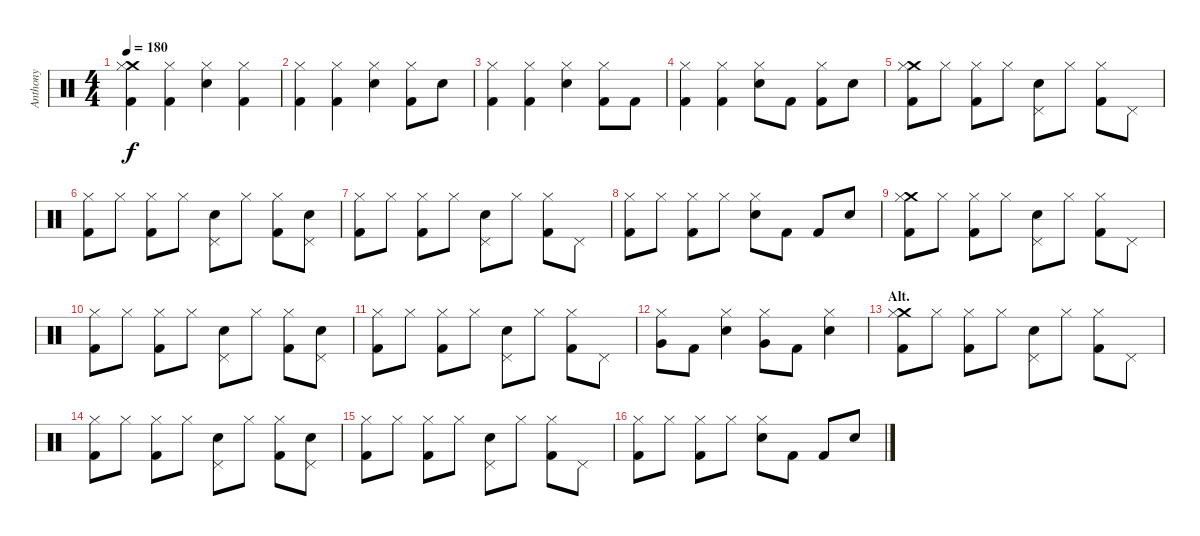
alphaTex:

\track ("Anthony" "Anthony") {instrument percussion}
\staff {score}
\articulation defaults
\ts (4 4)
\tempo 180
\clef neutral
\ks c
("Crash medium (hit)" "Hi-Hat (closed)" "Kick (hit) 2").4{dy f} ("Hi-Hat (closed)" "Kick (hit) 2").4 ("Hi-Hat (closed)" "Electric Snare (hit)").4 ("Hi-Hat (closed)" "Kick (hit) 2").4 |
("Hi-Hat (closed)" "Kick (hit) 2").4 ("Hi-Hat (closed)" "Kick (hit) 2").4 ("Hi-Hat (closed)" "Electric Snare (hit)").4 ("Hi-Hat (closed)" "Kick (hit) 2").8 "Electric Snare (hit)".8 |
("Hi-Hat (closed)" "Kick (hit) 2").4 ("Hi-Hat (closed)" "Kick (hit) 2").4 ("Hi-Hat (closed)" "Electric Snare (hit)").4 ("Hi-Hat (closed)" "Kick (hit) 2").8 "Kick (hit) 2".8 |
("Hi-Hat (closed)" "Kick (hit) 2").4 ("Hi-Hat (closed)" "Kick (hit) 2").4 ("Hi-Hat (closed)" "Electric Snare (hit)").8 "Kick (hit) 2".8 ("Hi-Hat (closed)" "Kick (hit) 2").8 "Electric Snare (hit)".8 |
("Crash medium (hit)" "Hi-Hat (closed)" "Kick (hit) 2").8 "Hi-Hat (closed)".8 ("Hi-Hat (closed)" "Kick (hit) 2").8 "Hi-Hat (closed)".8 ("Pedal Hi-Hat (hit)" "Electric Snare (hit)").8 "Hi-Hat (closed)".8 ("Hi-Hat (closed)" "Kick (hit) 2").8 "Pedal Hi-Hat (hit)".8 |
("Hi-Hat (closed)" "Kick (hit) 2").8 "Hi-Hat (closed)".8 ("Hi-Hat (closed)" "Kick (hit) 2").8 "Hi-Hat (closed)".8 ("Pedal Hi-Hat (hit)" "Electric Snare (hit)").8 "Hi-Hat (closed)".8 ("Hi-Hat (closed)" "Kick (hit) 2").8 ("Pedal Hi-Hat (hit)" "Electric Snare (hit)").8 |
("Hi-Hat (closed)" "Kick (hit) 2").8 "Hi-Hat (closed)".8 ("Hi-Hat (closed)" "Kick (hit) 2").8 "Hi-Hat (closed)".8 ("Pedal Hi-Hat (hit)" "Electric Snare (hit)").8 "Hi-Hat (closed)".8 ("Hi-Hat (closed)" "Kick (hit) 2").8 "Pedal Hi-Hat (hit)".8 |
("Hi-Hat (closed)" "Kick (hit) 2").8 "Hi-Hat (closed)".8 ("Hi-Hat (closed)" "Kick (hit) 2").8 "Hi-Hat (closed)".8 ("Hi-Hat (closed)" "Electric Snare (hit)").8 "Kick (hit) 2".8 "Kick (hit) 2".8 "Electric Snare (hit)".8 |
("Crash medium (hit)" "Hi-Hat (closed)" "Kick (hit) 2").8 "Hi-Hat (closed)".8 ("Hi-Hat (closed)" "Kick (hit) 2").8 "Hi-Hat (closed)".8 ("Pedal Hi-Hat (hit)" "Electric Snare (hit)").8 "Hi-Hat (closed)".8 ("Hi-Hat (closed)" "Kick (hit) 2").8 "Pedal Hi-Hat (hit)".8 |
("Hi-Hat (closed)" "Kick (hit) 2").8 "Hi-Hat (closed)".8 ("Hi-Hat (closed)" "Kick (hit) 2").8 "Hi-Hat (closed)".8 ("Pedal Hi-Hat (hit)" "Electric Snare (hit)").8 "Hi-Hat (closed)".8 ("Hi-Hat (closed)" "Kick (hit) 2").8 ("Pedal Hi-Hat (hit)" "Electric Snare (hit)").8 |
("Hi-Hat (closed)" "Kick (hit) 2").8 "Hi-Hat (closed)".8 ("Hi-Hat (closed)" "Kick (hit) 2").8 "Hi-Hat (closed)".8 ("Pedal Hi-Hat (hit)" "Electric Snare (hit)").8 "Hi-Hat (closed)".8 ("Hi-Hat (closed)" "Kick (hit) 2").8 "Pedal Hi-Hat (hit)".8 |
("Hi-Hat (closed)" "Very Low Tom (hit)").8 "Kick (hit) 2".8 ("Hi-Hat (closed)" "Electric Snare (hit)").4 ("Hi-Hat (closed)" "Very Low Tom (hit)").8 "Kick (hit) 2".8 ("Hi-Hat (closed)" "Electric Snare (hit)").4 |
\section ("" "Alt.")
("Crash medium (hit)" "Hi-Hat (closed)" "Kick (hit) 2").8 "Hi-Hat (closed)".8 ("Hi-Hat (closed)" "Kick (hit) 2").8 "Hi-Hat (closed)".8 ("Pedal Hi-Hat (hit)" "Electric Snare (hit)").8 "Hi-Hat (closed)".8 ("Hi-Hat (closed)" "Kick (hit) 2").8 "Pedal Hi-Hat (hit)".8 |
("Hi-Hat (closed)" "Kick (hit) 2").8 "Hi-Hat (closed)".8 ("Hi-Hat (closed)" "Kick (hit) 2").8 "Hi-Hat (closed)".8 ("Pedal Hi-Hat (hit)" "Electric Snare (hit)").8 "Hi-Hat (closed)".8 ("Hi-Hat (closed)" "Kick (hit) 2").8 ("Pedal Hi-Hat (hit)" "Electric Snare (hit)").8 |
("Hi-Hat (closed)" "Kick (hit) 2").8 "Hi-Hat (closed)".8 ("Hi-Hat (closed)" "Kick (hit) 2").8 "Hi-Hat (closed)".8 ("Pedal Hi-Hat (hit)" "Electric Snare (hit)").8 "Hi-Hat (closed)".8 ("Hi-Hat (closed)" "Kick (hit) 2").8 "Pedal Hi-Hat (hit)".8 |
("Hi-Hat (closed)" "Kick (hit) 2").8 "Hi-Hat (closed)".8 ("Hi-Hat (closed)" "Kick (hit) 2").8 "Hi-Hat (closed)".8 ("Hi-Hat (closed)" "Electric Snare (hit)").8 "Kick (hit) 2".8 "Kick (hit) 2".8 "Electric Snare (hit)".8
